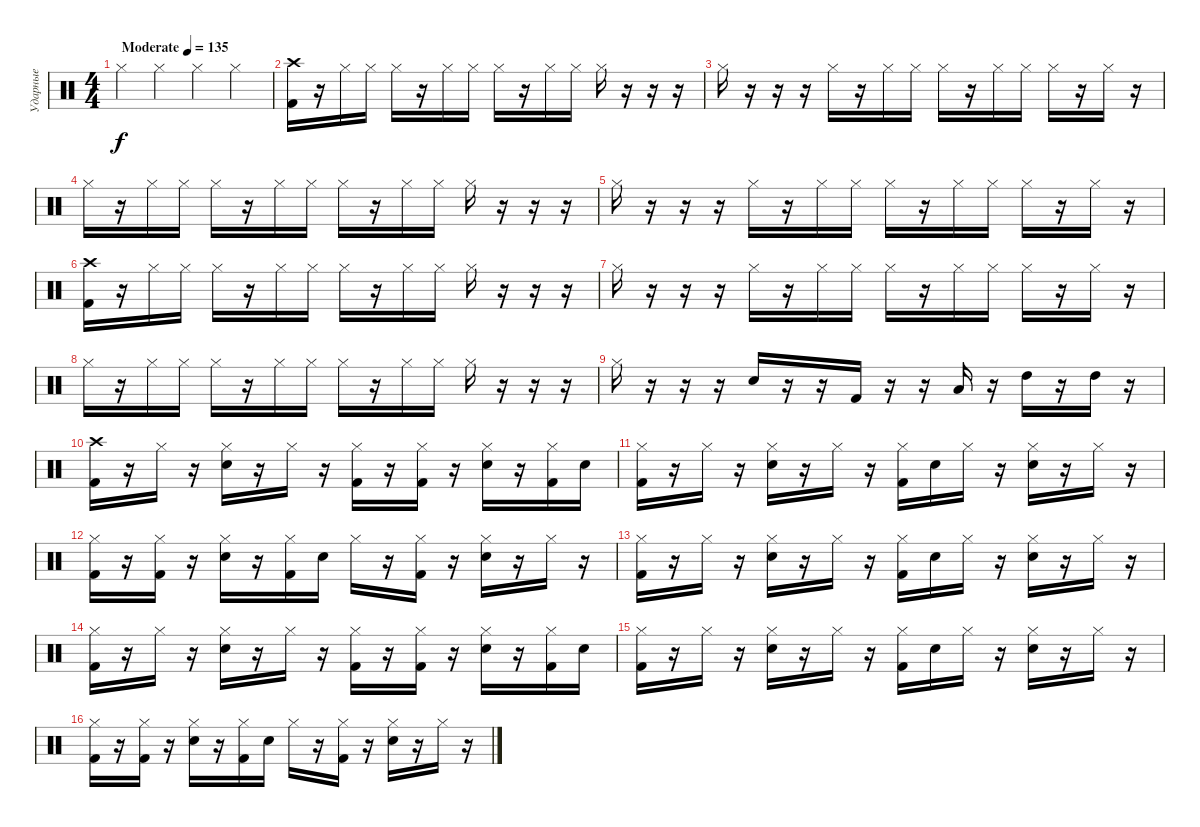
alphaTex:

\track ("Ударные" "Ударные") {instrument percussion}
\staff {score}
\articulation defaults
\ts (4 4)
\tempo (135 "Moderate")
\clef neutral
\ks c "Hi-Hat (closed)".4{dy f} "Hi-Hat (closed)".4 "Hi-Hat (closed)".4 "Hi-Hat (closed)".4
|
("Kick (hit) 2" "Crash high (hit)").16 r.16 "Hi-Hat (closed)".16 "Hi-Hat (closed)".16 "Hi-Hat (closed)".16 r.16 "Hi-Hat (closed)".16 "Hi-Hat (closed)".16 "Hi-Hat (closed)".16 r.16 "Hi-Hat (closed)".16 "Hi-Hat (closed)".16 "Hi-Hat (closed)".16 r.16 r.16 r.16 |
"Hi-Hat (closed)".16 r.16 r.16 r.16 "Hi-Hat (closed)".16 r.16 "Hi-Hat (closed)".16 "Hi-Hat (closed)".16 "Hi-Hat (closed)".16 r.16 "Hi-Hat (closed)".16 "Hi-Hat (closed)".16 "Hi-Hat (closed)".16 r.16 "Hi-Hat (closed)".16 r.16 |
"Hi-Hat (closed)".16 r.16 "Hi-Hat (closed)".16 "Hi-Hat (closed)".16 "Hi-Hat (closed)".16 r.16 "Hi-Hat (closed)".16 "Hi-Hat (closed)".16 "Hi-Hat (closed)".16 r.16 "Hi-Hat (closed)".16 "Hi-Hat (closed)".16 "Hi-Hat (closed)".16 r.16 r.16 r.16 |
"Hi-Hat (closed)".16 r.16 r.16 r.16 "Hi-Hat (closed)".16 r.16 "Hi-Hat (closed)".16 "Hi-Hat (closed)".16 "Hi-Hat (closed)".16 r.16 "Hi-Hat (closed)".16 "Hi-Hat (closed)".16 "Hi-Hat (closed)".16 r.16 "Hi-Hat (closed)".16 r.16 |
("Kick (hit) 2" "Crash high (hit)").16 r.16 "Hi-Hat (closed)".16 "Hi-Hat (closed)".16 "Hi-Hat (closed)".16 r.16 "Hi-Hat (closed)".16 "Hi-Hat (closed)".16 "Hi-Hat (closed)".16 r.16 "Hi-Hat (closed)".16 "Hi-Hat (closed)".16 "Hi-Hat (closed)".16 r.16 r.16 r.16 |
"Hi-Hat (closed)".16 r.16 r.16 r.16 "Hi-Hat (closed)".16 r.16 "Hi-Hat (closed)".16 "Hi-Hat (closed)".16 "Hi-Hat (closed)".16 r.16 "Hi-Hat (closed)".16 "Hi-Hat (closed)".16 "Hi-Hat (closed)".16 r.16 "Hi-Hat (closed)".16 r.16 |
"Hi-Hat (closed)".16 r.16 "Hi-Hat (closed)".16 "Hi-Hat (closed)".16 "Hi-Hat (closed)".16 r.16 "Hi-Hat (closed)".16 "Hi-Hat (closed)".16 "Hi-Hat (closed)".16 r.16 "Hi-Hat (closed)".16 "Hi-Hat (closed)".16 "Hi-Hat (closed)".16 r.16 r.16 r.16 |
"Hi-Hat (closed)".16 r.16 r.16 r.16 "Electric Snare (hit)".16 r.16 r.16 "Kick (hit) 2".16 r.16 r.16 "Low Floor Tom (hit)".16 r.16 "High Tom (hit)".16 r.16 "High Tom (hit)".16 r.16 |
("Kick (hit) 2" "Crash high (hit)").16 r.16 "Hi-Hat (closed)".16 r.16 ("Electric Snare (hit)" "Hi-Hat (closed)").16 r.16 "Hi-Hat (closed)".16 r.16 ("Kick (hit) 2" "Hi-Hat (closed)").16 r.16 ("Kick (hit) 2" "Hi-Hat (closed)").16 r.16 ("Electric Snare (hit)" "Hi-Hat (closed)").16 r.16 ("Kick (hit) 2" "Hi-Hat (closed)").16 "Electric Snare (hit)".16 |
("Kick (hit) 2" "Hi-Hat (closed)").16 r.16 "Hi-Hat (closed)".16 r.16 ("Electric Snare (hit)" "Hi-Hat (closed)").16 r.16 "Hi-Hat (closed)".16 r.16 ("Kick (hit) 2" "Hi-Hat (closed)").16 "Electric Snare (hit)".16 "Hi-Hat (closed)".16 r.16 ("Electric Snare (hit)" "Hi-Hat (closed)").16 r.16 "Hi-Hat (closed)".16 r.16 |
("Kick (hit) 2" "Hi-Hat (closed)").16 r.16 ("Kick (hit) 2" "Hi-Hat (closed)").16 r.16 ("Electric Snare (hit)" "Hi-Hat (closed)").16 r.16 ("Kick (hit) 2" "Hi-Hat (closed)").16 "Electric Snare (hit)".16 "Hi-Hat (closed)".16 r.16 ("Kick (hit) 2" "Hi-Hat (closed)").16 r.16 ("Electric Snare (hit)" "Hi-Hat (closed)").16 r.16 "Hi-Hat (closed)".16 r.16 |
("Kick (hit) 2" "Hi-Hat (closed)").16 r.16 "Hi-Hat (closed)".16 r.16 ("Electric Snare (hit)" "Hi-Hat (closed)").16 r.16 "Hi-Hat (closed)".16 r.16 ("Kick (hit) 2" "Hi-Hat (closed)").16 "Electric Snare (hit)".16 "Hi-Hat (closed)".16 r.16 ("Electric Snare (hit)" "Hi-Hat (closed)").16 r.16 "Hi-Hat (closed)".16 r.16 |
("Kick (hit) 2" "Hi-Hat (closed)").16 r.16 "Hi-Hat (closed)".16 r.16 ("Electric Snare (hit)" "Hi-Hat (closed)").16 r.16 "Hi-Hat (closed)".16 r.16 ("Kick (hit) 2" "Hi-Hat (closed)").16 r.16 ("Kick (hit) 2" "Hi-Hat (closed)").16 r.16 ("Electric Snare (hit)" "Hi-Hat (closed)").16 r.16 ("Kick (hit) 2" "Hi-Hat (closed)").16 "Electric Snare (hit)".16 |
("Kick (hit) 2" "Hi-Hat (closed)").16 r.16 "Hi-Hat (closed)".16 r.16 ("Electric Snare (hit)" "Hi-Hat (closed)").16 r.16 "Hi-Hat (closed)".16 r.16 ("Kick (hit) 2" "Hi-Hat (closed)").16 "Electric Snare (hit)".16 "Hi-Hat (closed)".16 r.16 ("Electric Snare (hit)" "Hi-Hat (closed)").16 r.16 "Hi-Hat (closed)".16 r.16 |
("Kick (hit) 2" "Hi-Hat (closed)").16 r.16 ("Kick (hit) 2" "Hi-Hat (closed)").16 r.16 ("Electric Snare (hit)" "Hi-Hat (closed)").16 r.16 ("Kick (hit) 2" "Hi-Hat (closed)").16 "Electric Snare (hit)".16 "Hi-Hat (closed)".16 r.16 ("Kick (hit) 2" "Hi-Hat (closed)").16 r.16 ("Electric Snare (hit)" "Hi-Hat (closed)").16 r.16 "Hi-Hat (closed)".16 r.16
